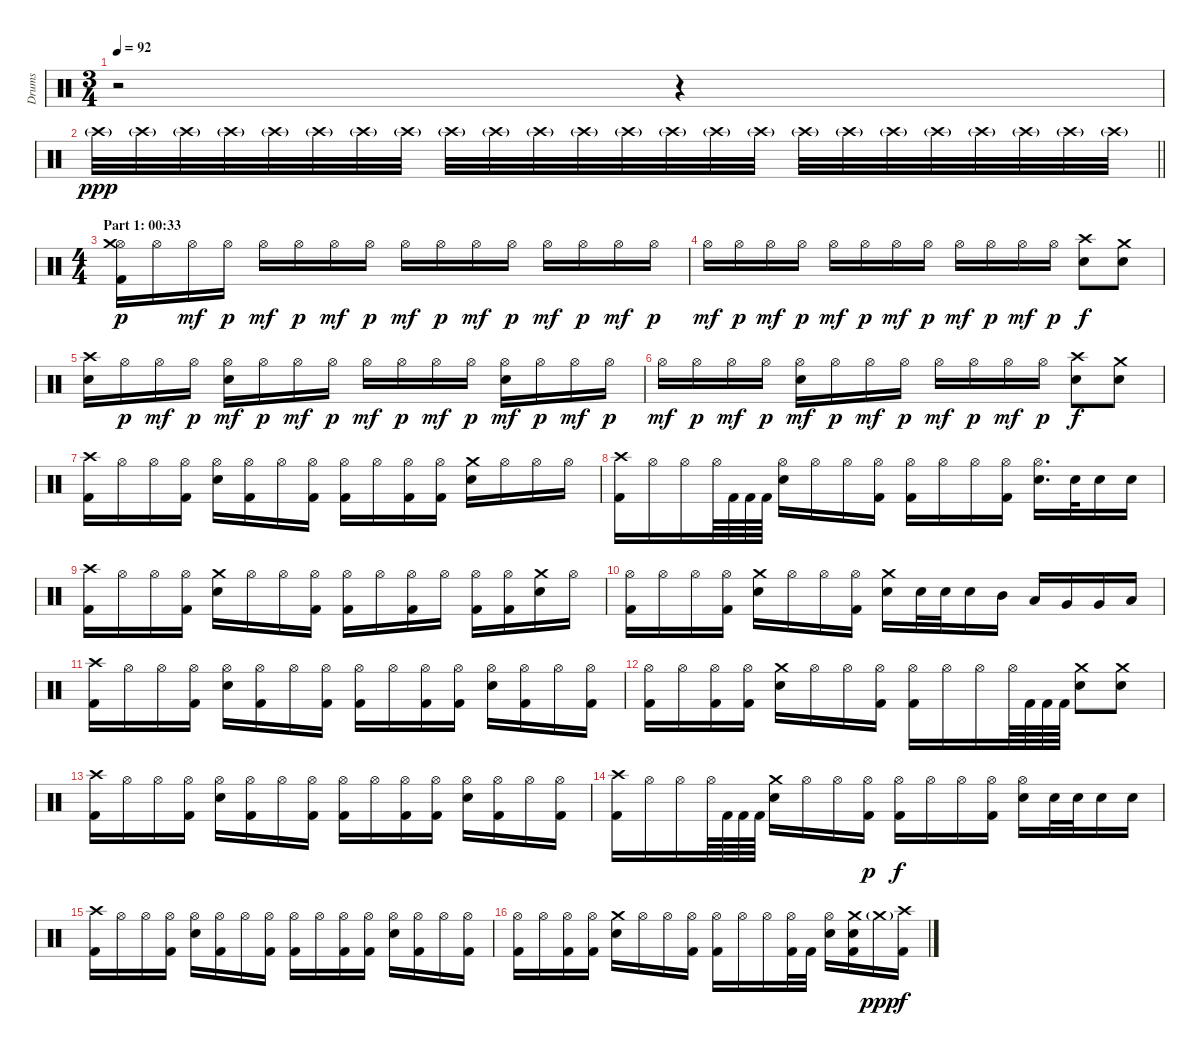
\track ("Drums" "Drums") {instrument percussion}
\staff {score}
\articulation defaults
\ts (3 4)
\tempo 92
\clef neutral
\ks c
r.2{dy f} r.4 |
\barLineRight lightlight "Crash high (hit)"{g}.32{dy ppp} "Crash high (hit)"{g}.32 "Crash high (hit)"{g}.32 "Crash high (hit)"{g}.32 "Crash high (hit)"{g}.32 "Crash high (hit)"{g}.32 "Crash high (hit)"{g}.32 "Crash high (hit)"{g}.32 "Crash high (hit)"{g}.32 "Crash high (hit)"{g}.32 "Crash high (hit)"{g}.32 "Crash high (hit)"{g}.32 "Crash high (hit)"{g}.32 "Crash high (hit)"{g}.32 "Crash high (hit)"{g}.32 "Crash high (hit)"{g}.32 "Crash high (hit)"{g}.32 "Crash high (hit)"{g}.32 "Crash high (hit)"{g}.32 "Crash high (hit)"{g}.32 "Crash high (hit)"{g}.32 "Crash high (hit)"{g}.32 "Crash high (hit)"{g}.32 "Crash high (hit)"{g}.32
|
\ts (4 4)
\section ("" "Part 1: 00:33")
("Hi-Hat (open)" "Crash medium (hit)" "Kick (hit) 2").16{dy p} "Hi-Hat (open)".16 "Hi-Hat (open)".16{dy mf} "Hi-Hat (open)".16{dy p} "Hi-Hat (open)".16{dy mf} "Hi-Hat (open)".16{dy p} "Hi-Hat (open)".16{dy mf} "Hi-Hat (open)".16{dy p} "Hi-Hat (open)".16{dy mf} "Hi-Hat (open)".16{dy p} "Hi-Hat (open)".16{dy mf} "Hi-Hat (open)".16{dy p} "Hi-Hat (open)".16{dy mf} "Hi-Hat (open)".16{dy p} "Hi-Hat (open)".16{dy mf} "Hi-Hat (open)".16{dy p} |
"Hi-Hat (open)".16{dy mf} "Hi-Hat (open)".16{dy p} "Hi-Hat (open)".16{dy mf} "Hi-Hat (open)".16{dy p} "Hi-Hat (open)".16{dy mf} "Hi-Hat (open)".16{dy p} "Hi-Hat (open)".16{dy mf} "Hi-Hat (open)".16{dy p} "Hi-Hat (open)".16{dy mf} "Hi-Hat (open)".16{dy p} "Hi-Hat (open)".16{dy mf} "Hi-Hat (open)".16{dy p} ("Crash high (hit)" "Electric Snare (hit)").8{dy f} ("Crash medium (hit)" "Electric Snare (hit)").8 |
("Crash high (hit)" "Electric Snare (hit)").16 "Hi-Hat (open)".16{dy p} "Hi-Hat (open)".16{dy mf} "Hi-Hat (open)".16{dy p} ("Hi-Hat (open)" "Electric Snare (hit)").16{dy mf} "Hi-Hat (open)".16{dy p} "Hi-Hat (open)".16{dy mf} "Hi-Hat (open)".16{dy p} "Hi-Hat (open)".16{dy mf} "Hi-Hat (open)".16{dy p} "Hi-Hat (open)".16{dy mf} "Hi-Hat (open)".16{dy p} ("Hi-Hat (open)" "Electric Snare (hit)").16{dy mf} "Hi-Hat (open)".16{dy p} "Hi-Hat (open)".16{dy mf} "Hi-Hat (open)".16{dy p} |
"Hi-Hat (open)".16{dy mf} "Hi-Hat (open)".16{dy p} "Hi-Hat (open)".16{dy mf} "Hi-Hat (open)".16{dy p} ("Hi-Hat (open)" "Electric Snare (hit)").16{dy mf} "Hi-Hat (open)".16{dy p} "Hi-Hat (open)".16{dy mf} "Hi-Hat (open)".16{dy p} "Hi-Hat (open)".16{dy mf} "Hi-Hat (open)".16{dy p} "Hi-Hat (open)".16{dy mf} "Hi-Hat (open)".16{dy p} ("Crash high (hit)" "Electric Snare (hit)").8{dy f} ("Crash medium (hit)" "Electric Snare (hit)").8 |
("Crash high (hit)" "Kick (hit) 2").16 "Hi-Hat (open)".16 "Hi-Hat (open)".16 ("Hi-Hat (open)" "Kick (hit) 2").16 ("Hi-Hat (open)" "Electric Snare (hit)").16 ("Hi-Hat (open)" "Kick (hit) 2").16 "Hi-Hat (open)".16 ("Hi-Hat (open)" "Kick (hit) 2").16 ("Hi-Hat (open)" "Kick (hit) 2").16 "Hi-Hat (open)".16 ("Hi-Hat (open)" "Kick (hit) 2").16 ("Hi-Hat (open)" "Kick (hit) 2").16 ("Crash medium (hit)" "Electric Snare (hit)").16 "Hi-Hat (open)".16 "Hi-Hat (open)".16 "Hi-Hat (open)".16 |
("Crash high (hit)" "Kick (hit) 2").16 "Hi-Hat (open)".16 "Hi-Hat (open)".16 "Hi-Hat (open)".64 "Kick (hit) 2".64 "Kick (hit) 2".64 "Kick (hit) 2".64 ("Hi-Hat (open)" "Electric Snare (hit)").16 "Hi-Hat (open)".16 "Hi-Hat (open)".16 ("Hi-Hat (open)" "Kick (hit) 2").16 ("Hi-Hat (open)" "Kick (hit) 2").16 "Hi-Hat (open)".16 "Hi-Hat (open)".16 ("Hi-Hat (open)" "Kick (hit) 2").16 ("Hi-Hat (open)" "Electric Snare (hit)").16{d} "Electric Snare (hit)".32 "Electric Snare (hit)".16 "Electric Snare (hit)".16 |
("Crash high (hit)" "Kick (hit) 2").16 "Hi-Hat (open)".16 "Hi-Hat (open)".16 ("Hi-Hat (open)" "Kick (hit) 2").16 ("Crash medium (hit)" "Electric Snare (hit)").16 "Hi-Hat (open)".16 "Hi-Hat (open)".16 ("Hi-Hat (open)" "Kick (hit) 2").16 ("Hi-Hat (open)" "Kick (hit) 2").16 "Hi-Hat (open)".16 ("Hi-Hat (open)" "Kick (hit) 2").16 "Hi-Hat (open)".16 ("Hi-Hat (open)" "Kick (hit) 2").16 ("Hi-Hat (open)" "Kick (hit) 2").16 ("Crash medium (hit)" "Electric Snare (hit)").16 "Hi-Hat (open)".16 |
("Hi-Hat (open)" "Kick (hit) 2").16 "Hi-Hat (open)".16 "Hi-Hat (open)".16 ("Hi-Hat (open)" "Kick (hit) 2").16 ("Crash medium (hit)" "Electric Snare (hit)").16 "Hi-Hat (open)".16 "Hi-Hat (open)".16 ("Hi-Hat (open)" "Kick (hit) 2").16 ("Crash medium (hit)" "Electric Snare (hit)").16 "Electric Snare (hit)".32 "Electric Snare (hit)".32 "Electric Snare (hit)".16 "Mid Tom (hit)".16 "Low Tom (hit)".16 "Very Low Tom (hit)".16 "Very Low Tom (hit)".16 "Low Floor Tom (hit)".16 |
("Crash high (hit)" "Kick (hit) 2").16 "Hi-Hat (open)".16 "Hi-Hat (open)".16 ("Hi-Hat (open)" "Kick (hit) 2").16 ("Hi-Hat (open)" "Electric Snare (hit)").16 ("Hi-Hat (open)" "Kick (hit) 2").16 "Hi-Hat (open)".16 ("Hi-Hat (open)" "Kick (hit) 2").16 ("Hi-Hat (open)" "Kick (hit) 2").16 "Hi-Hat (open)".16 ("Hi-Hat (open)" "Kick (hit) 2").16 ("Hi-Hat (open)" "Kick (hit) 2").16 ("Hi-Hat (open)" "Electric Snare (hit)").16 ("Hi-Hat (open)" "Kick (hit) 2").16 "Hi-Hat (open)".16 ("Hi-Hat (open)" "Kick (hit) 2").16 |
("Hi-Hat (open)" "Kick (hit) 2").16 "Hi-Hat (open)".16 ("Hi-Hat (open)" "Kick (hit) 2").16 ("Hi-Hat (open)" "Kick (hit) 2").16 ("Crash medium (hit)" "Electric Snare (hit)").16 "Hi-Hat (open)".16 "Hi-Hat (open)".16 ("Hi-Hat (open)" "Kick (hit) 2").16 ("Hi-Hat (open)" "Kick (hit) 2").16 "Hi-Hat (open)".16 "Hi-Hat (open)".16 "Hi-Hat (open)".64 "Kick (hit) 2".64 "Kick (hit) 2".64 "Kick (hit) 2".64 ("Crash medium (hit)" "Electric Snare (hit)").8 ("Crash medium (hit)" "Electric Snare (hit)").8 |
("Crash high (hit)" "Kick (hit) 2").16 "Hi-Hat (open)".16 "Hi-Hat (open)".16 ("Hi-Hat (open)" "Kick (hit) 2").16 ("Hi-Hat (open)" "Electric Snare (hit)").16 ("Hi-Hat (open)" "Kick (hit) 2").16 "Hi-Hat (open)".16 ("Hi-Hat (open)" "Kick (hit) 2").16 ("Hi-Hat (open)" "Kick (hit) 2").16 "Hi-Hat (open)".16 ("Hi-Hat (open)" "Kick (hit) 2").16 ("Hi-Hat (open)" "Kick (hit) 2").16 ("Hi-Hat (open)" "Electric Snare (hit)").16 ("Hi-Hat (open)" "Kick (hit) 2").16 "Hi-Hat (open)".16 ("Hi-Hat (open)" "Kick (hit) 2").16 |
("Crash high (hit)" "Kick (hit) 2").16 "Hi-Hat (open)".16 "Hi-Hat (open)".16 "Hi-Hat (open)".64 "Kick (hit) 2".64 "Kick (hit) 2".64 "Kick (hit) 2".64 ("Crash medium (hit)" "Electric Snare (hit)").16 "Hi-Hat (open)".16 "Hi-Hat (open)".16 ("Hi-Hat (open)" "Kick (hit) 2").16{dy p} ("Hi-Hat (open)" "Kick (hit) 2").16{dy f} "Hi-Hat (open)".16 "Hi-Hat (open)".16 ("Hi-Hat (open)" "Kick (hit) 2").16 ("Hi-Hat (open)" "Electric Snare (hit)").16 "Electric Snare (hit)".32 "Electric Snare (hit)".32 "Electric Snare (hit)".16 "Electric Snare (hit)".16 |
("Crash high (hit)" "Kick (hit) 2").16 "Hi-Hat (open)".16 "Hi-Hat (open)".16 ("Hi-Hat (open)" "Kick (hit) 2").16 ("Hi-Hat (open)" "Electric Snare (hit)").16 ("Hi-Hat (open)" "Kick (hit) 2").16 "Hi-Hat (open)".16 ("Hi-Hat (open)" "Kick (hit) 2").16 ("Hi-Hat (open)" "Kick (hit) 2").16 "Hi-Hat (open)".16 ("Hi-Hat (open)" "Kick (hit) 2").16 ("Hi-Hat (open)" "Kick (hit) 2").16 ("Hi-Hat (open)" "Electric Snare (hit)").16 ("Hi-Hat (open)" "Kick (hit) 2").16 "Hi-Hat (open)".16 ("Hi-Hat (open)" "Kick (hit) 2").16 |
("Hi-Hat (open)" "Kick (hit) 2").16 "Hi-Hat (open)".16 ("Hi-Hat (open)" "Kick (hit) 2").16 ("Hi-Hat (open)" "Kick (hit) 2").16 ("Crash medium (hit)" "Electric Snare (hit)").16 "Hi-Hat (open)".16 "Hi-Hat (open)".16 ("Hi-Hat (open)" "Kick (hit) 2").16 ("Hi-Hat (open)" "Kick (hit) 2").16 "Hi-Hat (open)".16 "Hi-Hat (open)".16 ("Hi-Hat (open)" "Kick (hit) 2").32 "Kick (hit) 2".32 ("Hi-Hat (open)" "Electric Snare (hit)").16 ("Crash medium (hit)" "Electric Snare (hit)" "Kick (hit) 2").16 "Crash medium (hit)"{g}.16{dy ppp} ("Crash high (hit)" "Kick (hit) 2").16{dy f}
